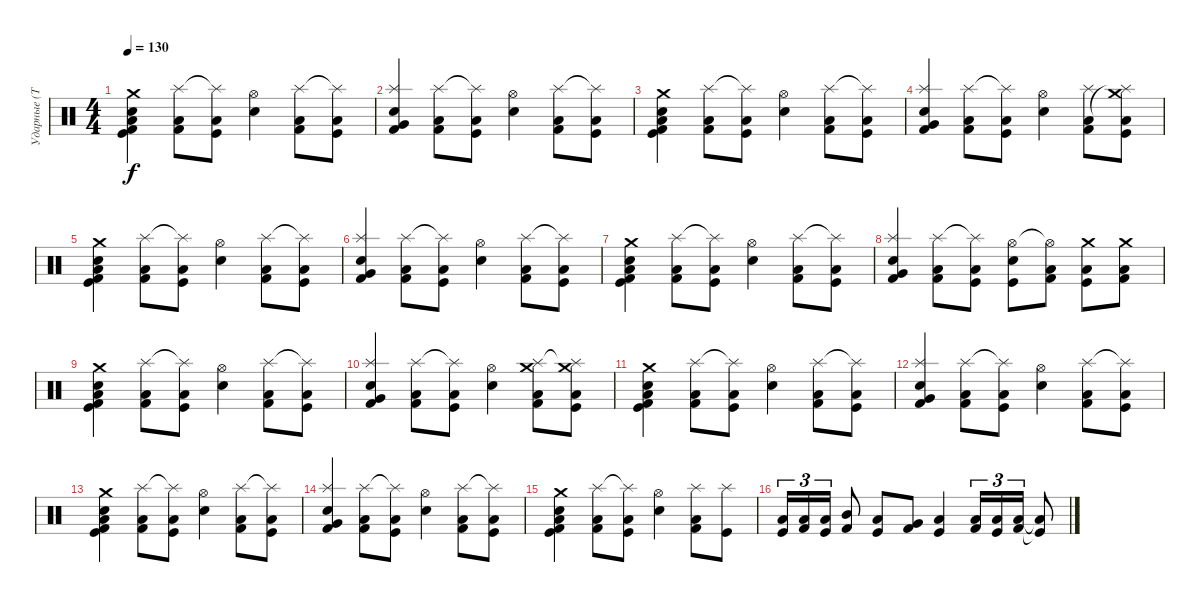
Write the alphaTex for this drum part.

\track ("Ударные (Тьодальв)" "Ударные (Т") {instrument percussion}
\staff {score}
\articulation defaults
\ts (4 4)
\tempo 130
\clef neutral
\ks c
("Crash medium (hit)" "Kick (hit) 2" "Kick (hit)" "Snare (hit) 2" "Low Floor Tom (hit)").4{dy f} ("Splash (hit)" "Low Floor Tom (hit)" "Kick (hit) 2").8 ("Splash (hit)"{t} "Low Floor Tom (hit)" "Kick (hit)").8 ("Hi-Hat (open)" "Snare (hit) 2").4 ("Splash (hit)" "Low Floor Tom (hit)" "Kick (hit) 2").8 ("Splash (hit)"{t} "Low Floor Tom (hit)" "Kick (hit)").8 |
("Splash (hit)" "Kick (hit) 2" "Electric Snare (hit)" "Very Low Tom (hit)").4 ("Splash (hit)" "Low Floor Tom (hit)" "Kick (hit) 2").8 ("Splash (hit)"{t} "Low Floor Tom (hit)" "Kick (hit)").8 ("Hi-Hat (open)" "Snare (hit) 2").4 ("Splash (hit)" "Low Floor Tom (hit)" "Kick (hit) 2").8 ("Splash (hit)"{t} "Low Floor Tom (hit)" "Kick (hit)").8 |
("Crash medium (hit)" "Kick (hit) 2" "Kick (hit)" "Snare (hit) 2" "Low Floor Tom (hit)").4 ("Splash (hit)" "Low Floor Tom (hit)" "Kick (hit) 2").8 ("Splash (hit)"{t} "Low Floor Tom (hit)" "Kick (hit)").8 ("Hi-Hat (open)" "Snare (hit) 2").4 ("Splash (hit)" "Low Floor Tom (hit)" "Kick (hit) 2").8 ("Splash (hit)"{t} "Low Floor Tom (hit)" "Kick (hit)").8 |
("Splash (hit)" "Kick (hit) 2" "Electric Snare (hit)" "Very Low Tom (hit)").4 ("Splash (hit)" "Low Floor Tom (hit)" "Kick (hit) 2").8 ("Splash (hit)"{t} "Low Floor Tom (hit)" "Kick (hit)").8 ("Hi-Hat (open)" "Snare (hit) 2").4 ("Splash (hit)" "Low Floor Tom (hit)" "Kick (hit) 2").8 ("Crash medium (hit)" "Splash (hit)"{t} "Low Floor Tom (hit)" "Kick (hit)").8 |
("Crash medium (hit)" "Kick (hit) 2" "Kick (hit)" "Snare (hit) 2" "Low Floor Tom (hit)").4 ("Splash (hit)" "Low Floor Tom (hit)" "Kick (hit) 2").8 ("Splash (hit)"{t} "Low Floor Tom (hit)" "Kick (hit)").8 ("Hi-Hat (open)" "Snare (hit) 2").4 ("Splash (hit)" "Low Floor Tom (hit)" "Kick (hit) 2").8 ("Splash (hit)"{t} "Low Floor Tom (hit)" "Kick (hit)").8 |
("Splash (hit)" "Kick (hit) 2" "Electric Snare (hit)" "Very Low Tom (hit)").4 ("Splash (hit)" "Low Floor Tom (hit)" "Kick (hit) 2").8 ("Splash (hit)"{t} "Low Floor Tom (hit)" "Kick (hit)").8 ("Hi-Hat (open)" "Snare (hit) 2").4 ("Splash (hit)" "Low Floor Tom (hit)" "Kick (hit) 2").8 ("Splash (hit)"{t} "Low Floor Tom (hit)" "Kick (hit)").8 |
("Crash medium (hit)" "Kick (hit) 2" "Kick (hit)" "Snare (hit) 2" "Low Floor Tom (hit)").4 ("Splash (hit)" "Low Floor Tom (hit)" "Kick (hit) 2").8 ("Splash (hit)"{t} "Low Floor Tom (hit)" "Kick (hit)").8 ("Hi-Hat (open)" "Snare (hit) 2").4 ("Splash (hit)" "Low Floor Tom (hit)" "Kick (hit) 2").8 ("Splash (hit)"{t} "Low Floor Tom (hit)" "Kick (hit)").8 |
("Splash (hit)" "Kick (hit) 2" "Electric Snare (hit)" "Very Low Tom (hit)").4 ("Splash (hit)" "Low Floor Tom (hit)" "Kick (hit) 2").8 ("Splash (hit)"{t} "Low Floor Tom (hit)" "Kick (hit)").8 ("Hi-Hat (open)" "Snare (hit) 2" "Kick (hit)").8 ("Hi-Hat (open)"{t} "Low Floor Tom (hit)" "Kick (hit) 2").8 ("Crash medium (hit)" "Low Floor Tom (hit)" "Kick (hit)").8 ("Crash medium (hit)" "Low Floor Tom (hit)" "Kick (hit) 2").8 |
("Crash medium (hit)" "Kick (hit) 2" "Kick (hit)" "Snare (hit) 2" "Low Floor Tom (hit)").4 ("Splash (hit)" "Low Floor Tom (hit)" "Kick (hit) 2").8 ("Splash (hit)"{t} "Low Floor Tom (hit)" "Kick (hit)").8 ("Hi-Hat (open)" "Snare (hit) 2").4 ("Splash (hit)" "Low Floor Tom (hit)" "Kick (hit) 2").8 ("Splash (hit)"{t} "Low Floor Tom (hit)" "Kick (hit)").8 |
("Splash (hit)" "Kick (hit) 2" "Electric Snare (hit)" "Very Low Tom (hit)").4 ("Splash (hit)" "Low Floor Tom (hit)" "Kick (hit) 2").8 ("Splash (hit)"{t} "Low Floor Tom (hit)" "Kick (hit)").8 ("Hi-Hat (open)" "Snare (hit) 2").4 ("Crash medium (hit)" "Splash (hit)" "Low Floor Tom (hit)" "Kick (hit) 2").8 ("Crash medium (hit)" "Splash (hit)"{t} "Low Floor Tom (hit)" "Kick (hit)").8 |
("Crash medium (hit)" "Kick (hit) 2" "Kick (hit)" "Snare (hit) 2" "Low Floor Tom (hit)").4 ("Splash (hit)" "Low Floor Tom (hit)" "Kick (hit) 2").8 ("Splash (hit)"{t} "Low Floor Tom (hit)" "Kick (hit)").8 ("Hi-Hat (open)" "Snare (hit) 2").4 ("Splash (hit)" "Low Floor Tom (hit)" "Kick (hit) 2").8 ("Splash (hit)"{t} "Low Floor Tom (hit)" "Kick (hit)").8 |
("Splash (hit)" "Kick (hit) 2" "Electric Snare (hit)" "Very Low Tom (hit)").4 ("Splash (hit)" "Low Floor Tom (hit)" "Kick (hit) 2").8 ("Splash (hit)"{t} "Low Floor Tom (hit)" "Kick (hit)").8 ("Hi-Hat (open)" "Snare (hit) 2").4 ("Splash (hit)" "Low Floor Tom (hit)" "Kick (hit) 2").8 ("Splash (hit)"{t} "Low Floor Tom (hit)" "Kick (hit)").8 |
("Crash medium (hit)" "Kick (hit) 2" "Kick (hit)" "Snare (hit) 2" "Low Floor Tom (hit)").4 ("Splash (hit)" "Low Floor Tom (hit)" "Kick (hit) 2").8 ("Splash (hit)"{t} "Low Floor Tom (hit)" "Kick (hit)").8 ("Hi-Hat (open)" "Snare (hit) 2").4 ("Splash (hit)" "Low Floor Tom (hit)" "Kick (hit) 2").8 ("Splash (hit)"{t} "Low Floor Tom (hit)" "Kick (hit)").8 |
("Splash (hit)" "Kick (hit) 2" "Electric Snare (hit)" "Very Low Tom (hit)").4 ("Splash (hit)" "Low Floor Tom (hit)" "Kick (hit) 2").8 ("Splash (hit)"{t} "Low Floor Tom (hit)" "Kick (hit)").8 ("Hi-Hat (open)" "Snare (hit) 2").4 ("Splash (hit)" "Low Floor Tom (hit)" "Kick (hit) 2").8 ("Splash (hit)"{t} "Low Floor Tom (hit)" "Kick (hit)").8 |
("Crash medium (hit)" "Kick (hit) 2" "Kick (hit)" "Snare (hit) 2" "Low Floor Tom (hit)").4 ("Splash (hit)" "Low Floor Tom (hit)" "Kick (hit) 2").8 ("Splash (hit)"{t} "Low Floor Tom (hit)" "Kick (hit)").8 ("Hi-Hat (open)" "Snare (hit) 2").4 ("Splash (hit)" "Low Floor Tom (hit)" "Kick (hit) 2").8 ("Splash (hit)" "Kick (hit)").8 |
("Low Floor Tom (hit)" "Kick (hit)").16{tu (3 2)} ("Low Floor Tom (hit)" "Kick (hit) 2").16{tu (3 2)} ("Low Floor Tom (hit)" "Kick (hit)").16{tu (3 2)} ("Mid Tom (hit)" "Kick (hit) 2").8 ("Low Tom (hit)" "Kick (hit)").8 ("Very Low Tom (hit)" "Kick (hit) 2").8 ("Low Floor Tom (hit)" "Kick (hit)").4 ("Low Floor Tom (hit)" "Kick (hit) 2").16{tu (3 2)} ("Low Floor Tom (hit)" "Kick (hit)").16{tu (3 2)} ("Low Floor Tom (hit)" "Kick (hit) 2").16{tu (3 2)} ("Low Floor Tom (hit)"{t} "Kick (hit)"{t}).8
